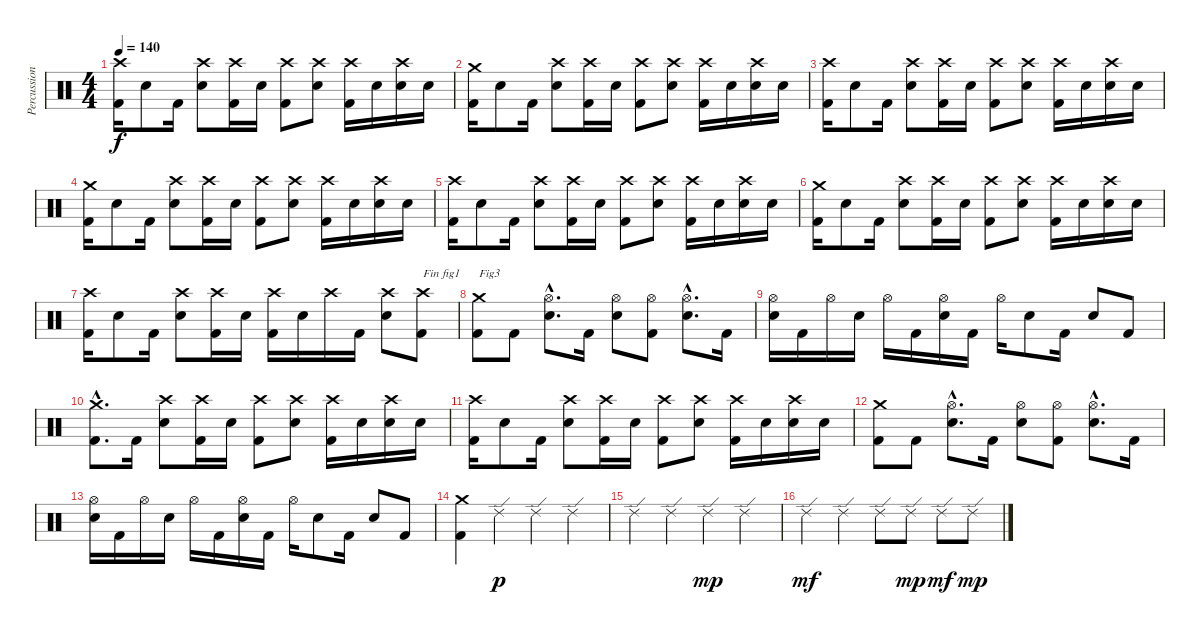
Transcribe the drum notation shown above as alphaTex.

\track ("Percussions" "Percussion") {instrument percussion}
\staff {score}
\articulation defaults
\ts (4 4)
\tempo 140
\clef neutral
\ks c
("Kick (hit) 2" "Crash high (hit)").16{dy f} "Electric Snare (hit)".8 "Kick (hit) 2".16 ("Electric Snare (hit)" "Crash high (hit)").8 ("Kick (hit) 2" "Crash high (hit)").16 "Electric Snare (hit)".16 ("Kick (hit) 2" "Crash high (hit)").8 ("Electric Snare (hit)" "Crash high (hit)").8 ("Kick (hit) 2" "Crash high (hit)").16 "Electric Snare (hit)".16 ("Electric Snare (hit)" "Crash high (hit)").16 "Electric Snare (hit)".16 |
("Kick (hit) 2" "Crash medium (hit)").16 "Electric Snare (hit)".8 "Kick (hit) 2".16 ("Electric Snare (hit)" "Crash high (hit)").8 ("Kick (hit) 2" "Crash high (hit)").16 "Electric Snare (hit)".16 ("Kick (hit) 2" "Crash high (hit)").8 ("Electric Snare (hit)" "Crash high (hit)").8 ("Kick (hit) 2" "Crash high (hit)").16 "Electric Snare (hit)".16 ("Electric Snare (hit)" "Crash high (hit)").16 "Electric Snare (hit)".16 |
("Kick (hit) 2" "Crash high (hit)").16 "Electric Snare (hit)".8 "Kick (hit) 2".16 ("Electric Snare (hit)" "Crash high (hit)").8 ("Kick (hit) 2" "Crash high (hit)").16 "Electric Snare (hit)".16 ("Kick (hit) 2" "Crash high (hit)").8 ("Electric Snare (hit)" "Crash high (hit)").8 ("Kick (hit) 2" "Crash high (hit)").16 "Electric Snare (hit)".16 ("Electric Snare (hit)" "Crash high (hit)").16 "Electric Snare (hit)".16 |
("Kick (hit) 2" "Crash medium (hit)").16 "Electric Snare (hit)".8 "Kick (hit) 2".16 ("Electric Snare (hit)" "Crash high (hit)").8 ("Kick (hit) 2" "Crash high (hit)").16 "Electric Snare (hit)".16 ("Kick (hit) 2" "Crash high (hit)").8 ("Electric Snare (hit)" "Crash high (hit)").8 ("Kick (hit) 2" "Crash high (hit)").16 "Electric Snare (hit)".16 ("Electric Snare (hit)" "Crash high (hit)").16 "Electric Snare (hit)".16 |
("Kick (hit) 2" "Crash high (hit)").16 "Electric Snare (hit)".8 "Kick (hit) 2".16 ("Electric Snare (hit)" "Crash high (hit)").8 ("Kick (hit) 2" "Crash high (hit)").16 "Electric Snare (hit)".16 ("Kick (hit) 2" "Crash high (hit)").8 ("Electric Snare (hit)" "Crash high (hit)").8 ("Kick (hit) 2" "Crash high (hit)").16 "Electric Snare (hit)".16 ("Electric Snare (hit)" "Crash high (hit)").16 "Electric Snare (hit)".16 |
("Kick (hit) 2" "Crash medium (hit)").16 "Electric Snare (hit)".8 "Kick (hit) 2".16 ("Electric Snare (hit)" "Crash high (hit)").8 ("Kick (hit) 2" "Crash high (hit)").16 "Electric Snare (hit)".16 ("Kick (hit) 2" "Crash high (hit)").8 ("Electric Snare (hit)" "Crash high (hit)").8 ("Kick (hit) 2" "Crash high (hit)").16 "Electric Snare (hit)".16 ("Electric Snare (hit)" "Crash high (hit)").16 "Electric Snare (hit)".16 |
("Kick (hit) 2" "Crash high (hit)").16 "Electric Snare (hit)".8 "Kick (hit) 2".16 ("Electric Snare (hit)" "Crash high (hit)").8 ("Kick (hit) 2" "Crash high (hit)").16 "Electric Snare (hit)".16 ("Kick (hit) 2" "Crash high (hit)").16 "Electric Snare (hit)".16 "Crash high (hit)".16 "Kick (hit) 2".16 ("Electric Snare (hit)" "Crash high (hit)").8 ("Kick (hit) 2" "Crash high (hit)").8{txt "Fin fig1"} |
("Kick (hit) 2" "Crash medium (hit)").8{txt "Fig3"} "Kick (hit) 2".8 ("Electric Snare (hit)"{hac} "Hi-Hat (open)"{hac}).8{d} "Kick (hit) 2".16 ("Electric Snare (hit)" "Hi-Hat (open)").8 ("Kick (hit) 2" "Hi-Hat (open)").8 ("Electric Snare (hit)"{hac} "Hi-Hat (open)"{hac}).8{d} "Kick (hit) 2".16 |
("Electric Snare (hit)" "Hi-Hat (open)").16 "Kick (hit) 2".16 "Hi-Hat (open)".16 "Electric Snare (hit)".16 "Hi-Hat (open)".16 "Kick (hit) 2".16 ("Electric Snare (hit)" "Hi-Hat (open)").16 "Kick (hit) 2".16 "Hi-Hat (open)".16 "Electric Snare (hit)".8 "Kick (hit) 2".16 "Electric Snare (hit)".8 "Kick (hit) 2".8 |
("Kick (hit) 2"{hac} "Crash medium (hit)"{hac}).8{d} "Kick (hit) 2".16 ("Electric Snare (hit)" "Crash high (hit)").8 ("Kick (hit) 2" "Crash high (hit)").16 "Electric Snare (hit)".16 ("Kick (hit) 2" "Crash high (hit)").8 ("Electric Snare (hit)" "Crash high (hit)").8 ("Kick (hit) 2" "Crash high (hit)").16 "Electric Snare (hit)".16 ("Electric Snare (hit)" "Crash high (hit)").16 "Electric Snare (hit)".16 |
("Kick (hit) 2" "Crash high (hit)").16 "Electric Snare (hit)".8 "Kick (hit) 2".16 ("Electric Snare (hit)" "Crash high (hit)").8 ("Kick (hit) 2" "Crash high (hit)").16 "Electric Snare (hit)".16 ("Kick (hit) 2" "Crash high (hit)").8 ("Electric Snare (hit)" "Crash high (hit)").8 ("Kick (hit) 2" "Crash high (hit)").16 "Electric Snare (hit)".16 ("Electric Snare (hit)" "Crash high (hit)").16 "Electric Snare (hit)".16 |
("Kick (hit) 2" "Crash medium (hit)").8 "Kick (hit) 2".8 ("Electric Snare (hit)"{hac} "Hi-Hat (open)"{hac}).8{d} "Kick (hit) 2".16 ("Electric Snare (hit)" "Hi-Hat (open)").8 ("Kick (hit) 2" "Hi-Hat (open)").8 ("Electric Snare (hit)"{hac} "Hi-Hat (open)"{hac}).8{d} "Kick (hit) 2".16 |
("Electric Snare (hit)" "Hi-Hat (open)").16 "Kick (hit) 2".16 "Hi-Hat (open)".16 "Electric Snare (hit)".16 "Hi-Hat (open)".16 "Kick (hit) 2".16 ("Electric Snare (hit)" "Hi-Hat (open)").16 "Kick (hit) 2".16 "Hi-Hat (open)".16 "Electric Snare (hit)".8 "Kick (hit) 2".16 "Electric Snare (hit)".8 "Kick (hit) 2".8 |
("Kick (hit) 2" "Crash medium (hit)").4 "Ride (edge) 2".4{dy p} "Ride (edge) 2".4 "Ride (edge) 2".4 |
"Ride (edge) 2".4 "Ride (edge) 2".4 "Ride (edge) 2".4{dy mp} "Ride (edge) 2".4 |
"Ride (edge) 2".4{dy mf} "Ride (edge) 2".4 "Ride (edge) 2".8 "Ride (edge) 2".8{dy mp} "Ride (edge) 2".8{dy mf} "Ride (edge) 2".8{dy mp}
